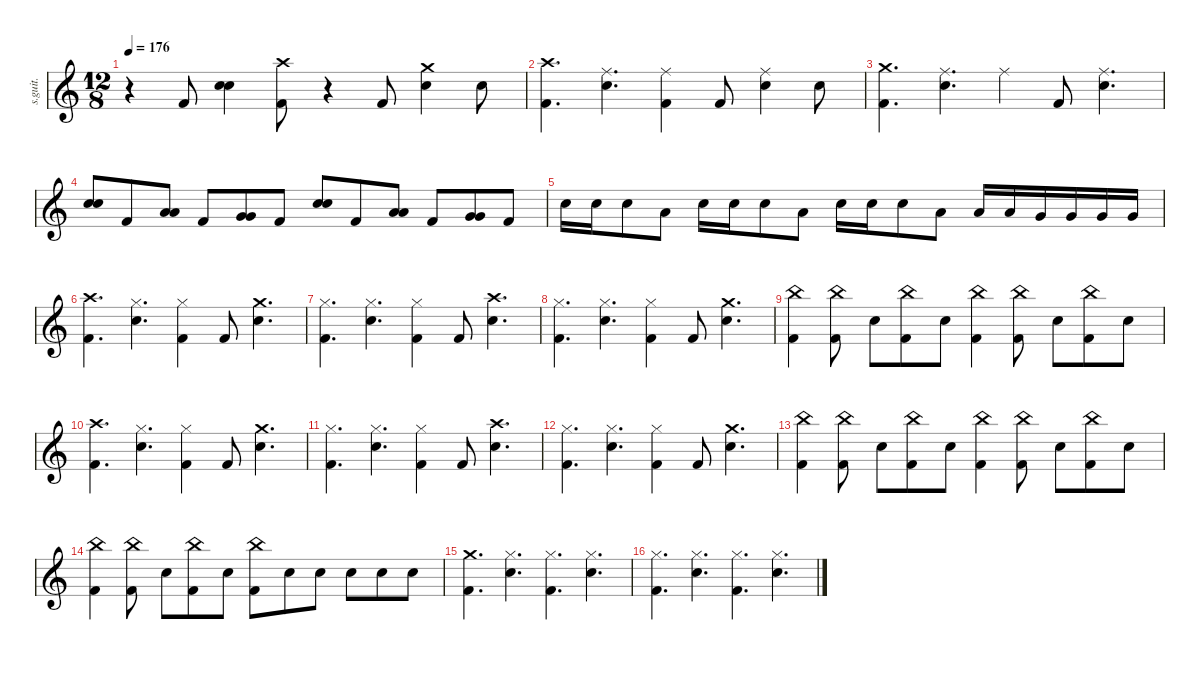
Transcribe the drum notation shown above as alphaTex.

\defaultSystemsLayout 4
\hideDynamics
\bracketExtendMode nobrackets
\track ("Vinnie Paul" "s.guit.") {instrument percussion}
\staff {score}
\articulation defaults
\ts (12 8)
\tempo 176
\clef g2
\ks c
r.4{dy f} "Kick (hit) 2".8{lyrics (0 "") lyrics (1 "") lyrics (2 "") lyrics (3 "") lyrics (4 "")} ("Snare (hit) 2" "Snare (hit) 2").4{lyrics (0 "") lyrics (1 "") lyrics (2 "") lyrics (3 "") lyrics (4 "")} ("Crash high (hit)" "Kick (hit) 2").8{lyrics (0 "") lyrics (1 "") lyrics (2 "") lyrics (3 "") lyrics (4 "")} r.4 "Kick (hit) 2".8{lyrics (0 "") lyrics (1 "") lyrics (2 "") lyrics (3 "") lyrics (4 "")} ("Crash medium (hit)" "Snare (hit) 2").4{lyrics (0 "") lyrics (1 "") lyrics (2 "") lyrics (3 "") lyrics (4 "")} "Snare (hit) 2".8{lyrics (0 "") lyrics (1 "") lyrics (2 "") lyrics (3 "") lyrics (4 "")} |
("Crash high (hit)" "Kick (hit) 2").4{d lyrics (0 "") lyrics (1 "") lyrics (2 "") lyrics (3 "") lyrics (4 "")} ("Ride (middle)" "Snare (hit) 2").4{d lyrics (0 "") lyrics (1 "") lyrics (2 "") lyrics (3 "") lyrics (4 "")} ("Ride (middle)" "Kick (hit) 2").4{lyrics (0 "") lyrics (1 "") lyrics (2 "") lyrics (3 "") lyrics (4 "")} "Kick (hit) 2".8{lyrics (0 "") lyrics (1 "") lyrics (2 "") lyrics (3 "") lyrics (4 "")} ("Ride (middle)" "Snare (hit) 2").4{lyrics (0 "") lyrics (1 "") lyrics (2 "") lyrics (3 "") lyrics (4 "")} "Snare (hit) 2".8{lyrics (0 "") lyrics (1 "") lyrics (2 "") lyrics (3 "") lyrics (4 "")} |
("Crash medium (hit)" "Kick (hit) 2").4{d lyrics (0 "") lyrics (1 "") lyrics (2 "") lyrics (3 "") lyrics (4 "")} ("Ride (middle)" "Snare (hit) 2").4{d lyrics (0 "") lyrics (1 "") lyrics (2 "") lyrics (3 "") lyrics (4 "")} "Ride (middle)".4{lyrics (0 "") lyrics (1 "") lyrics (2 "") lyrics (3 "") lyrics (4 "")} "Kick (hit) 2".8{lyrics (0 "") lyrics (1 "") lyrics (2 "") lyrics (3 "") lyrics (4 "")} ("Ride (middle)" "Snare (hit) 2").4{d lyrics (0 "") lyrics (1 "") lyrics (2 "") lyrics (3 "") lyrics (4 "")} |
("Snare (hit) 2" "Snare (hit) 2").8{lyrics (0 "") lyrics (1 "") lyrics (2 "") lyrics (3 "") lyrics (4 "")} "Kick (hit) 2".8{lyrics (0 "") lyrics (1 "") lyrics (2 "") lyrics (3 "") lyrics (4 "")} ("Low Tom (hit)" "Low Tom (hit)").8{lyrics (0 "") lyrics (1 "") lyrics (2 "") lyrics (3 "") lyrics (4 "")} "Kick (hit) 2".8{lyrics (0 "") lyrics (1 "") lyrics (2 "") lyrics (3 "") lyrics (4 "")} ("Very Low Tom (hit)" "Very Low Tom (hit)").8{lyrics (0 "") lyrics (1 "") lyrics (2 "") lyrics (3 "") lyrics (4 "")} "Kick (hit) 2".8{lyrics (0 "") lyrics (1 "") lyrics (2 "") lyrics (3 "") lyrics (4 "")} ("Snare (hit) 2" "Snare (hit) 2").8{lyrics (0 "") lyrics (1 "") lyrics (2 "") lyrics (3 "") lyrics (4 "")} "Kick (hit) 2".8{lyrics (0 "") lyrics (1 "") lyrics (2 "") lyrics (3 "") lyrics (4 "")} ("Low Tom (hit)" "Low Tom (hit)").8{lyrics (0 "") lyrics (1 "") lyrics (2 "") lyrics (3 "") lyrics (4 "")} "Kick (hit) 2".8{lyrics (0 "") lyrics (1 "") lyrics (2 "") lyrics (3 "") lyrics (4 "")} ("Very Low Tom (hit)" "Very Low Tom (hit)").8{lyrics (0 "") lyrics (1 "") lyrics (2 "") lyrics (3 "") lyrics (4 "")} "Kick (hit) 2".8{lyrics (0 "") lyrics (1 "") lyrics (2 "") lyrics (3 "") lyrics (4 "")} |
"Snare (hit) 2".16{lyrics (0 "") lyrics (1 "") lyrics (2 "") lyrics (3 "") lyrics (4 "")} "Snare (hit) 2".16{lyrics (0 "") lyrics (1 "") lyrics (2 "") lyrics (3 "") lyrics (4 "")} "Snare (hit) 2".8{lyrics (0 "") lyrics (1 "") lyrics (2 "") lyrics (3 "") lyrics (4 "")} "Low Tom (hit)".8{lyrics (0 "") lyrics (1 "") lyrics (2 "") lyrics (3 "") lyrics (4 "")} "Snare (hit) 2".16{lyrics (0 "") lyrics (1 "") lyrics (2 "") lyrics (3 "") lyrics (4 "")} "Snare (hit) 2".16{lyrics (0 "") lyrics (1 "") lyrics (2 "") lyrics (3 "") lyrics (4 "")} "Snare (hit) 2".8{lyrics (0 "") lyrics (1 "") lyrics (2 "") lyrics (3 "") lyrics (4 "")} "Low Tom (hit)".8{lyrics (0 "") lyrics (1 "") lyrics (2 "") lyrics (3 "") lyrics (4 "")} "Snare (hit) 2".16{lyrics (0 "") lyrics (1 "") lyrics (2 "") lyrics (3 "") lyrics (4 "")} "Snare (hit) 2".16{lyrics (0 "") lyrics (1 "") lyrics (2 "") lyrics (3 "") lyrics (4 "")} "Snare (hit) 2".8{lyrics (0 "") lyrics (1 "") lyrics (2 "") lyrics (3 "") lyrics (4 "")} "Low Tom (hit)".8{lyrics (0 "") lyrics (1 "") lyrics (2 "") lyrics (3 "") lyrics (4 "")} "Low Tom (hit)".16{lyrics (0 "") lyrics (1 "") lyrics (2 "") lyrics (3 "") lyrics (4 "")} "Low Tom (hit)".16{lyrics (0 "") lyrics (1 "") lyrics (2 "") lyrics (3 "") lyrics (4 "")} "Very Low Tom (hit)".16{lyrics (0 "") lyrics (1 "") lyrics (2 "") lyrics (3 "") lyrics (4 "")} "Very Low Tom (hit)".16{lyrics (0 "") lyrics (1 "") lyrics (2 "") lyrics (3 "") lyrics (4 "")} "Very Low Tom (hit)".16{lyrics (0 "") lyrics (1 "") lyrics (2 "") lyrics (3 "") lyrics (4 "")} "Very Low Tom (hit)".16{lyrics (0 "") lyrics (1 "") lyrics (2 "") lyrics (3 "") lyrics (4 "")} |
("Crash high (hit)" "Kick (hit) 2").4{d lyrics (0 "") lyrics (1 "") lyrics (2 "") lyrics (3 "") lyrics (4 "")} ("Hi-Hat (closed)" "Snare (hit) 2").4{d lyrics (0 "") lyrics (1 "") lyrics (2 "") lyrics (3 "") lyrics (4 "")} ("Hi-Hat (closed)" "Kick (hit) 2").4{lyrics (0 "") lyrics (1 "") lyrics (2 "") lyrics (3 "") lyrics (4 "")} "Kick (hit) 2".8{lyrics (0 "") lyrics (1 "") lyrics (2 "") lyrics (3 "") lyrics (4 "")} ("Crash medium (hit)" "Snare (hit) 2").4{d lyrics (0 "") lyrics (1 "") lyrics (2 "") lyrics (3 "") lyrics (4 "")} |
("Hi-Hat (closed)" "Kick (hit) 2").4{d lyrics (0 "") lyrics (1 "") lyrics (2 "") lyrics (3 "") lyrics (4 "")} ("Hi-Hat (closed)" "Snare (hit) 2").4{d lyrics (0 "") lyrics (1 "") lyrics (2 "") lyrics (3 "") lyrics (4 "")} ("Hi-Hat (closed)" "Kick (hit) 2").4{lyrics (0 "") lyrics (1 "") lyrics (2 "") lyrics (3 "") lyrics (4 "")} "Kick (hit) 2".8{lyrics (0 "") lyrics (1 "") lyrics (2 "") lyrics (3 "") lyrics (4 "")} ("Crash high (hit)" "Snare (hit) 2").4{d lyrics (0 "") lyrics (1 "") lyrics (2 "") lyrics (3 "") lyrics (4 "")} |
("Hi-Hat (closed)" "Kick (hit) 2").4{d lyrics (0 "") lyrics (1 "") lyrics (2 "") lyrics (3 "") lyrics (4 "")} ("Hi-Hat (closed)" "Snare (hit) 2").4{d lyrics (0 "") lyrics (1 "") lyrics (2 "") lyrics (3 "") lyrics (4 "")} ("Hi-Hat (closed)" "Kick (hit) 2").4{lyrics (0 "") lyrics (1 "") lyrics (2 "") lyrics (3 "") lyrics (4 "")} "Kick (hit) 2".8{lyrics (0 "") lyrics (1 "") lyrics (2 "") lyrics (3 "") lyrics (4 "")} ("Crash medium (hit)" "Snare (hit) 2").4{d lyrics (0 "") lyrics (1 "") lyrics (2 "") lyrics (3 "") lyrics (4 "")} |
("China (hit)" "Kick (hit) 2").4{lyrics (0 "") lyrics (1 "") lyrics (2 "") lyrics (3 "") lyrics (4 "")} ("China (hit)" "Kick (hit) 2").8{lyrics (0 "") lyrics (1 "") lyrics (2 "") lyrics (3 "") lyrics (4 "")} "Snare (hit) 2".8{lyrics (0 "") lyrics (1 "") lyrics (2 "") lyrics (3 "") lyrics (4 "")} ("China (hit)" "Kick (hit) 2").8{lyrics (0 "") lyrics (1 "") lyrics (2 "") lyrics (3 "") lyrics (4 "")} "Snare (hit) 2".8{lyrics (0 "") lyrics (1 "") lyrics (2 "") lyrics (3 "") lyrics (4 "")} ("China (hit)" "Kick (hit) 2").4{lyrics (0 "") lyrics (1 "") lyrics (2 "") lyrics (3 "") lyrics (4 "")} ("China (hit)" "Kick (hit) 2").8{lyrics (0 "") lyrics (1 "") lyrics (2 "") lyrics (3 "") lyrics (4 "")} "Snare (hit) 2".8{lyrics (0 "") lyrics (1 "") lyrics (2 "") lyrics (3 "") lyrics (4 "")} ("China (hit)" "Kick (hit) 2").8{lyrics (0 "") lyrics (1 "") lyrics (2 "") lyrics (3 "") lyrics (4 "")} "Snare (hit) 2".8{lyrics (0 "") lyrics (1 "") lyrics (2 "") lyrics (3 "") lyrics (4 "")} |
("Crash high (hit)" "Kick (hit) 2").4{d lyrics (0 "") lyrics (1 "") lyrics (2 "") lyrics (3 "") lyrics (4 "")} ("Hi-Hat (closed)" "Snare (hit) 2").4{d lyrics (0 "") lyrics (1 "") lyrics (2 "") lyrics (3 "") lyrics (4 "")} ("Hi-Hat (closed)" "Kick (hit) 2").4{lyrics (0 "") lyrics (1 "") lyrics (2 "") lyrics (3 "") lyrics (4 "")} "Kick (hit) 2".8{lyrics (0 "") lyrics (1 "") lyrics (2 "") lyrics (3 "") lyrics (4 "")} ("Crash medium (hit)" "Snare (hit) 2").4{d lyrics (0 "") lyrics (1 "") lyrics (2 "") lyrics (3 "") lyrics (4 "")} |
("Hi-Hat (closed)" "Kick (hit) 2").4{d lyrics (0 "") lyrics (1 "") lyrics (2 "") lyrics (3 "") lyrics (4 "")} ("Hi-Hat (closed)" "Snare (hit) 2").4{d lyrics (0 "") lyrics (1 "") lyrics (2 "") lyrics (3 "") lyrics (4 "")} ("Hi-Hat (closed)" "Kick (hit) 2").4{lyrics (0 "") lyrics (1 "") lyrics (2 "") lyrics (3 "") lyrics (4 "")} "Kick (hit) 2".8{lyrics (0 "") lyrics (1 "") lyrics (2 "") lyrics (3 "") lyrics (4 "")} ("Crash high (hit)" "Snare (hit) 2").4{d lyrics (0 "") lyrics (1 "") lyrics (2 "") lyrics (3 "") lyrics (4 "")} |
("Hi-Hat (closed)" "Kick (hit) 2").4{d lyrics (0 "") lyrics (1 "") lyrics (2 "") lyrics (3 "") lyrics (4 "")} ("Hi-Hat (closed)" "Snare (hit) 2").4{d lyrics (0 "") lyrics (1 "") lyrics (2 "") lyrics (3 "") lyrics (4 "")} ("Hi-Hat (closed)" "Kick (hit) 2").4{lyrics (0 "") lyrics (1 "") lyrics (2 "") lyrics (3 "") lyrics (4 "")} "Kick (hit) 2".8{lyrics (0 "") lyrics (1 "") lyrics (2 "") lyrics (3 "") lyrics (4 "")} ("Crash medium (hit)" "Snare (hit) 2").4{d lyrics (0 "") lyrics (1 "") lyrics (2 "") lyrics (3 "") lyrics (4 "")} |
("China (hit)" "Kick (hit) 2").4{lyrics (0 "") lyrics (1 "") lyrics (2 "") lyrics (3 "") lyrics (4 "")} ("China (hit)" "Kick (hit) 2").8{lyrics (0 "") lyrics (1 "") lyrics (2 "") lyrics (3 "") lyrics (4 "")} "Snare (hit) 2".8{lyrics (0 "") lyrics (1 "") lyrics (2 "") lyrics (3 "") lyrics (4 "")} ("China (hit)" "Kick (hit) 2").8{lyrics (0 "") lyrics (1 "") lyrics (2 "") lyrics (3 "") lyrics (4 "")} "Snare (hit) 2".8{lyrics (0 "") lyrics (1 "") lyrics (2 "") lyrics (3 "") lyrics (4 "")} ("China (hit)" "Kick (hit) 2").4{lyrics (0 "") lyrics (1 "") lyrics (2 "") lyrics (3 "") lyrics (4 "")} ("China (hit)" "Kick (hit) 2").8{lyrics (0 "") lyrics (1 "") lyrics (2 "") lyrics (3 "") lyrics (4 "")} "Snare (hit) 2".8{lyrics (0 "") lyrics (1 "") lyrics (2 "") lyrics (3 "") lyrics (4 "")} ("China (hit)" "Kick (hit) 2").8{lyrics (0 "") lyrics (1 "") lyrics (2 "") lyrics (3 "") lyrics (4 "")} "Snare (hit) 2".8{lyrics (0 "") lyrics (1 "") lyrics (2 "") lyrics (3 "") lyrics (4 "")} |
("China (hit)" "Kick (hit) 2").4{lyrics (0 "") lyrics (1 "") lyrics (2 "") lyrics (3 "") lyrics (4 "")} ("China (hit)" "Kick (hit) 2").8{lyrics (0 "") lyrics (1 "") lyrics (2 "") lyrics (3 "") lyrics (4 "")} "Snare (hit) 2".8{lyrics (0 "") lyrics (1 "") lyrics (2 "") lyrics (3 "") lyrics (4 "")} ("China (hit)" "Kick (hit) 2").8{lyrics (0 "") lyrics (1 "") lyrics (2 "") lyrics (3 "") lyrics (4 "")} "Snare (hit) 2".8{lyrics (0 "") lyrics (1 "") lyrics (2 "") lyrics (3 "") lyrics (4 "")} ("China (hit)" "Kick (hit) 2").8{lyrics (0 "") lyrics (1 "") lyrics (2 "") lyrics (3 "") lyrics (4 "")} "Snare (hit) 2".8{lyrics (0 "") lyrics (1 "") lyrics (2 "") lyrics (3 "") lyrics (4 "")} "Snare (hit) 2".8{lyrics (0 "") lyrics (1 "") lyrics (2 "") lyrics (3 "") lyrics (4 "")} "Snare (hit) 2".8{lyrics (0 "") lyrics (1 "") lyrics (2 "") lyrics (3 "") lyrics (4 "")} "Snare (hit) 2".8{lyrics (0 "") lyrics (1 "") lyrics (2 "") lyrics (3 "") lyrics (4 "")} "Snare (hit) 2".8{lyrics (0 "") lyrics (1 "") lyrics (2 "") lyrics (3 "") lyrics (4 "")} |
("Crash medium (hit)" "Kick (hit) 2").4{d lyrics (0 "") lyrics (1 "") lyrics (2 "") lyrics (3 "") lyrics (4 "")} ("Hi-Hat (closed)" "Snare (hit) 2").4{d lyrics (0 "") lyrics (1 "") lyrics (2 "") lyrics (3 "") lyrics (4 "")} ("Hi-Hat (closed)" "Kick (hit) 2").4{d lyrics (0 "") lyrics (1 "") lyrics (2 "") lyrics (3 "") lyrics (4 "")} ("Hi-Hat (closed)" "Snare (hit) 2").4{d lyrics (0 "") lyrics (1 "") lyrics (2 "") lyrics (3 "") lyrics (4 "")} |
("Hi-Hat (closed)" "Kick (hit) 2").4{d lyrics (0 "") lyrics (1 "") lyrics (2 "") lyrics (3 "") lyrics (4 "")} ("Hi-Hat (closed)" "Snare (hit) 2").4{d lyrics (0 "") lyrics (1 "") lyrics (2 "") lyrics (3 "") lyrics (4 "")} ("Hi-Hat (closed)" "Kick (hit) 2").4{d lyrics (0 "") lyrics (1 "") lyrics (2 "") lyrics (3 "") lyrics (4 "")} ("Hi-Hat (closed)" "Snare (hit) 2").4{d lyrics (0 "") lyrics (1 "") lyrics (2 "") lyrics (3 "") lyrics (4 "")}
